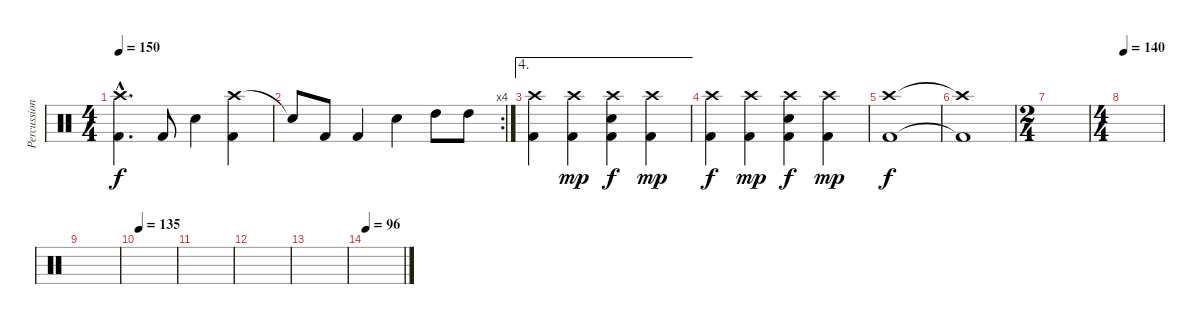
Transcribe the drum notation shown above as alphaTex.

\track ("Percussion" "Percussion") {instrument percussion}
\staff {score}
\articulation defaults
\ts (4 4)
\tempo 150
\clef neutral
\ks c
("Crash high (hit)"{hac} "Kick (hit) 2"{hac}).4{d dy f} "Kick (hit) 2".8 "Electric Snare (hit)".4 ("Crash high (hit)" "Kick (hit) 2").4 |
\rc 4 "Snare (hit)"{t}.8 "Kick (hit) 2".8 "Kick (hit) 2".4 "Electric Snare (hit)".4 "High Tom (hit)".8 "High Tom (hit)".8
|
\ae 4
("Crash high (hit)" "Kick (hit) 2").4 ("Crash high (hit)" "Kick (hit) 2").4{dy mp} ("Crash high (hit)" "Electric Snare (hit)" "Kick (hit) 2").4{dy f} ("Crash high (hit)" "Kick (hit) 2").4{dy mp} |
("Crash high (hit)" "Kick (hit) 2").4{dy f} ("Crash high (hit)" "Kick (hit) 2").4{dy mp} ("Crash high (hit)" "Electric Snare (hit)" "Kick (hit) 2").4{dy f} ("Crash high (hit)" "Kick (hit) 2").4{dy mp} |
("Crash high (hit)" "Kick (hit) 2").1{dy f} |
("Crash high (hit)"{t} "Kick (hit) 2"{t}).1 |
\ts (2 4)
|
\ts (4 4)
\tempo 140
|
|
\tempo 135
|
|
|
|
\tempo 96
